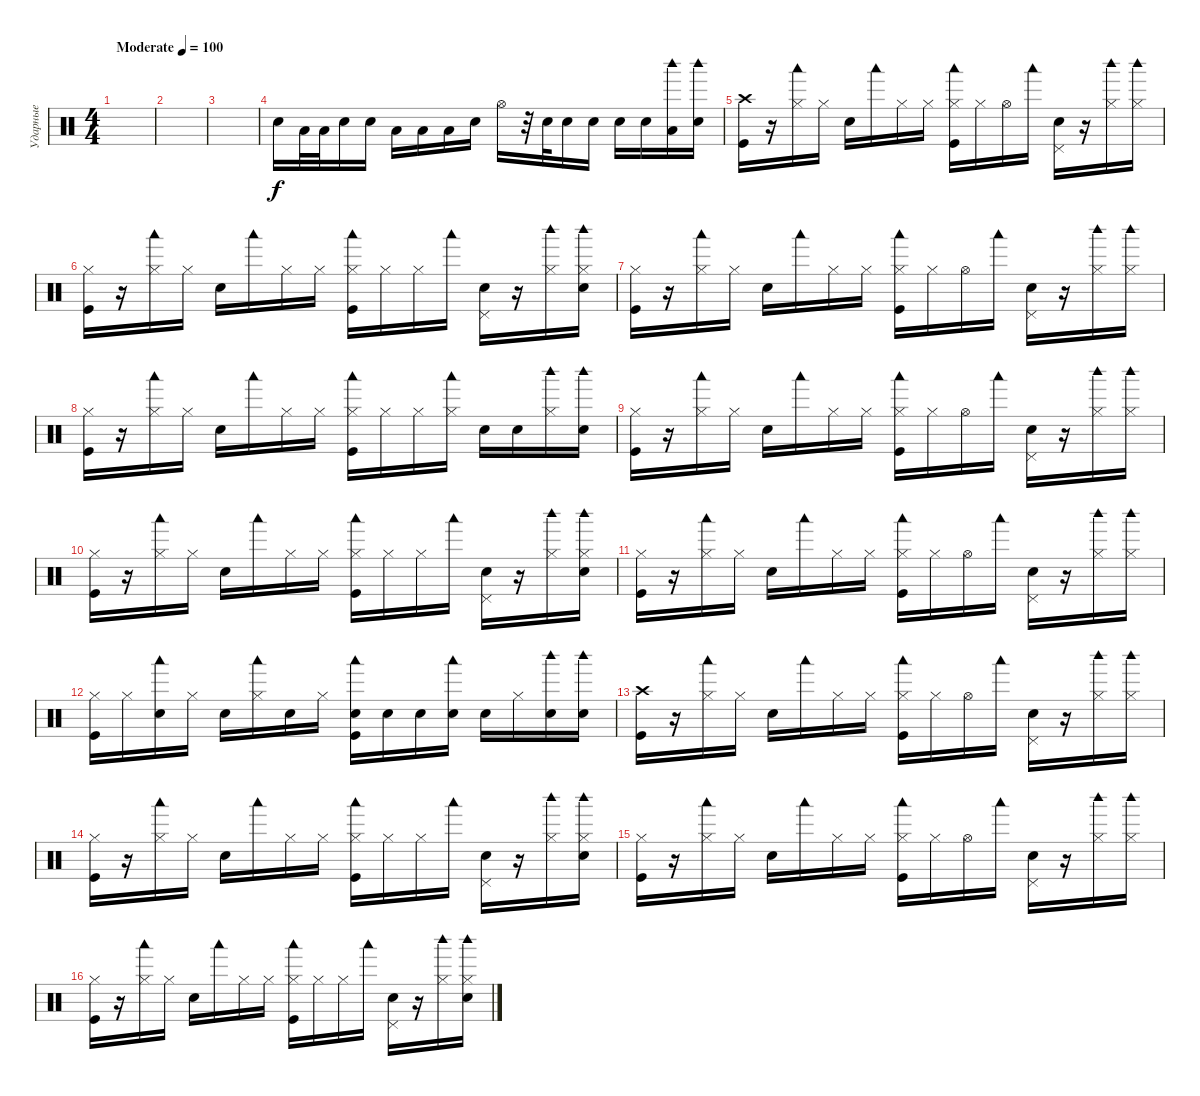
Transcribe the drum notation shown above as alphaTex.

\track ("Ударные" "Ударные") {instrument percussion}
\staff {score}
\articulation defaults
\ts (4 4)
\tempo (100 "Moderate")
\clef neutral
\ks c
|
|
|
"Snare (hit) 2".16 "Low Tom (hit)".32 "Low Tom (hit)".32 "Snare (hit) 2".16 "Snare (hit) 2".16 "Low Tom (hit)".16 "Low Tom (hit)".16 "Low Floor Tom (hit)".16 "Snare (hit) 2".16 "Hi-Hat (open)".16 r.32 "Snare (hit) 2".32 "Snare (hit) 2".16 "Snare (hit) 2".16 "Snare (hit) 2".16 "Snare (hit) 2".16 ("Low Floor Tom (hit)" "Woodblock high (hit)").16 ("Snare (hit) 2" "Woodblock high (hit)").16 |
("Kick (hit)" "Crash high (hit)").16 r.16 ("Hi-Hat (closed)" "Woodblock low (hit)").16 "Hi-Hat (closed)".16 "Snare (hit) 2".16 "Woodblock low (hit)".16 "Hi-Hat (closed)".16 "Hi-Hat (closed)".16 ("Kick (hit)" "Hi-Hat (closed)" "Woodblock low (hit)").16 "Hi-Hat (closed)".16 "Hi-Hat (open)".16 "Woodblock low (hit)".16 ("Snare (hit) 2" "Pedal Hi-Hat (hit)").16 r.16 ("Hi-Hat (closed)" "Woodblock high (hit)").16 ("Hi-Hat (closed)" "Woodblock high (hit)").16 |
("Kick (hit)" "Hi-Hat (closed)").16 r.16 ("Hi-Hat (closed)" "Woodblock low (hit)").16 "Hi-Hat (closed)".16 "Snare (hit) 2".16 "Woodblock low (hit)".16 "Hi-Hat (closed)".16 "Hi-Hat (closed)".16 ("Kick (hit)" "Hi-Hat (closed)" "Woodblock low (hit)").16 "Hi-Hat (closed)".16 "Hi-Hat (closed)".16 "Woodblock low (hit)".16 ("Snare (hit) 2" "Pedal Hi-Hat (hit)").16 r.16 ("Hi-Hat (closed)" "Woodblock high (hit)").16 ("Snare (hit) 2" "Hi-Hat (closed)" "Woodblock high (hit)").16 |
("Kick (hit)" "Hi-Hat (closed)").16 r.16 ("Hi-Hat (closed)" "Woodblock low (hit)").16 "Hi-Hat (closed)".16 "Snare (hit) 2".16 "Woodblock low (hit)".16 "Hi-Hat (closed)".16 "Hi-Hat (closed)".16 ("Kick (hit)" "Hi-Hat (closed)" "Woodblock low (hit)").16 "Hi-Hat (closed)".16 "Hi-Hat (open)".16 "Woodblock low (hit)".16 ("Snare (hit) 2" "Pedal Hi-Hat (hit)").16 r.16 ("Hi-Hat (closed)" "Woodblock high (hit)").16 ("Hi-Hat (closed)" "Woodblock high (hit)").16 |
("Kick (hit)" "Hi-Hat (closed)").16 r.16 ("Hi-Hat (closed)" "Woodblock low (hit)").16 "Hi-Hat (closed)".16 "Snare (hit) 2".16 "Woodblock low (hit)".16 "Hi-Hat (closed)".16 "Hi-Hat (closed)".16 ("Kick (hit)" "Hi-Hat (closed)" "Woodblock low (hit)").16 "Hi-Hat (closed)".16 "Hi-Hat (closed)".16 ("Hi-Hat (closed)" "Woodblock low (hit)").16 "Snare (hit) 2".16 "Snare (hit) 2".16 ("Hi-Hat (closed)" "Woodblock high (hit)").16 ("Snare (hit) 2" "Woodblock high (hit)").16 |
("Kick (hit)" "Hi-Hat (closed)").16 r.16 ("Hi-Hat (closed)" "Woodblock low (hit)").16 "Hi-Hat (closed)".16 "Snare (hit) 2".16 "Woodblock low (hit)".16 "Hi-Hat (closed)".16 "Hi-Hat (closed)".16 ("Kick (hit)" "Hi-Hat (closed)" "Woodblock low (hit)").16 "Hi-Hat (closed)".16 "Hi-Hat (open)".16 "Woodblock low (hit)".16 ("Snare (hit) 2" "Pedal Hi-Hat (hit)").16 r.16 ("Hi-Hat (closed)" "Woodblock high (hit)").16 ("Hi-Hat (closed)" "Woodblock high (hit)").16 |
("Kick (hit)" "Hi-Hat (closed)").16 r.16 ("Hi-Hat (closed)" "Woodblock low (hit)").16 "Hi-Hat (closed)".16 "Snare (hit) 2".16 "Woodblock low (hit)".16 "Hi-Hat (closed)".16 "Hi-Hat (closed)".16 ("Kick (hit)" "Hi-Hat (closed)" "Woodblock low (hit)").16 "Hi-Hat (closed)".16 "Hi-Hat (closed)".16 "Woodblock low (hit)".16 ("Snare (hit) 2" "Pedal Hi-Hat (hit)").16 r.16 ("Hi-Hat (closed)" "Woodblock high (hit)").16 ("Snare (hit) 2" "Hi-Hat (closed)" "Woodblock high (hit)").16 |
("Kick (hit)" "Hi-Hat (closed)").16 r.16 ("Hi-Hat (closed)" "Woodblock low (hit)").16 "Hi-Hat (closed)".16 "Snare (hit) 2".16 "Woodblock low (hit)".16 "Hi-Hat (closed)".16 "Hi-Hat (closed)".16 ("Kick (hit)" "Hi-Hat (closed)" "Woodblock low (hit)").16 "Hi-Hat (closed)".16 "Hi-Hat (open)".16 "Woodblock low (hit)".16 ("Snare (hit) 2" "Pedal Hi-Hat (hit)").16 r.16 ("Hi-Hat (closed)" "Woodblock high (hit)").16 ("Hi-Hat (closed)" "Woodblock high (hit)").16 |
("Kick (hit)" "Hi-Hat (closed)").16 "Hi-Hat (closed)".16 ("Snare (hit) 2" "Woodblock low (hit)").16 "Hi-Hat (closed)".16 "Snare (hit) 2".16 ("Hi-Hat (closed)" "Woodblock low (hit)").16 "Snare (hit) 2".16 "Hi-Hat (closed)".16 ("Kick (hit)" "Snare (hit) 2" "Woodblock low (hit)").16 "Snare (hit) 2".16 "Snare (hit) 2".16 ("Snare (hit) 2" "Woodblock low (hit)").16 "Snare (hit) 2".16 "Hi-Hat (closed)".16 ("Snare (hit) 2" "Woodblock high (hit)").16 ("Snare (hit) 2" "Woodblock high (hit)").16 |
("Kick (hit)" "Crash high (hit)").16 r.16 ("Hi-Hat (closed)" "Woodblock low (hit)").16 "Hi-Hat (closed)".16 "Snare (hit) 2".16 "Woodblock low (hit)".16 "Hi-Hat (closed)".16 "Hi-Hat (closed)".16 ("Kick (hit)" "Hi-Hat (closed)" "Woodblock low (hit)").16 "Hi-Hat (closed)".16 "Hi-Hat (open)".16 "Woodblock low (hit)".16 ("Snare (hit) 2" "Pedal Hi-Hat (hit)").16 r.16 ("Hi-Hat (closed)" "Woodblock high (hit)").16 ("Hi-Hat (closed)" "Woodblock high (hit)").16 |
("Kick (hit)" "Hi-Hat (closed)").16 r.16 ("Hi-Hat (closed)" "Woodblock low (hit)").16 "Hi-Hat (closed)".16 "Snare (hit) 2".16 "Woodblock low (hit)".16 "Hi-Hat (closed)".16 "Hi-Hat (closed)".16 ("Kick (hit)" "Hi-Hat (closed)" "Woodblock low (hit)").16 "Hi-Hat (closed)".16 "Hi-Hat (closed)".16 "Woodblock low (hit)".16 ("Snare (hit) 2" "Pedal Hi-Hat (hit)").16 r.16 ("Hi-Hat (closed)" "Woodblock high (hit)").16 ("Snare (hit) 2" "Hi-Hat (closed)" "Woodblock high (hit)").16 |
("Kick (hit)" "Hi-Hat (closed)").16 r.16 ("Hi-Hat (closed)" "Woodblock low (hit)").16 "Hi-Hat (closed)".16 "Snare (hit) 2".16 "Woodblock low (hit)".16 "Hi-Hat (closed)".16 "Hi-Hat (closed)".16 ("Kick (hit)" "Hi-Hat (closed)" "Woodblock low (hit)").16 "Hi-Hat (closed)".16 "Hi-Hat (open)".16 "Woodblock low (hit)".16 ("Snare (hit) 2" "Pedal Hi-Hat (hit)").16 r.16 ("Hi-Hat (closed)" "Woodblock high (hit)").16 ("Hi-Hat (closed)" "Woodblock high (hit)").16 |
("Kick (hit)" "Hi-Hat (closed)").16 r.16 ("Hi-Hat (closed)" "Woodblock low (hit)").16 "Hi-Hat (closed)".16 "Snare (hit) 2".16 "Woodblock low (hit)".16 "Hi-Hat (closed)".16 "Hi-Hat (closed)".16 ("Kick (hit)" "Hi-Hat (closed)" "Woodblock low (hit)").16 "Hi-Hat (closed)".16 "Hi-Hat (closed)".16 "Woodblock low (hit)".16 ("Snare (hit) 2" "Pedal Hi-Hat (hit)").16 r.16 ("Hi-Hat (closed)" "Woodblock high (hit)").16 ("Snare (hit) 2" "Hi-Hat (closed)" "Woodblock high (hit)").16
